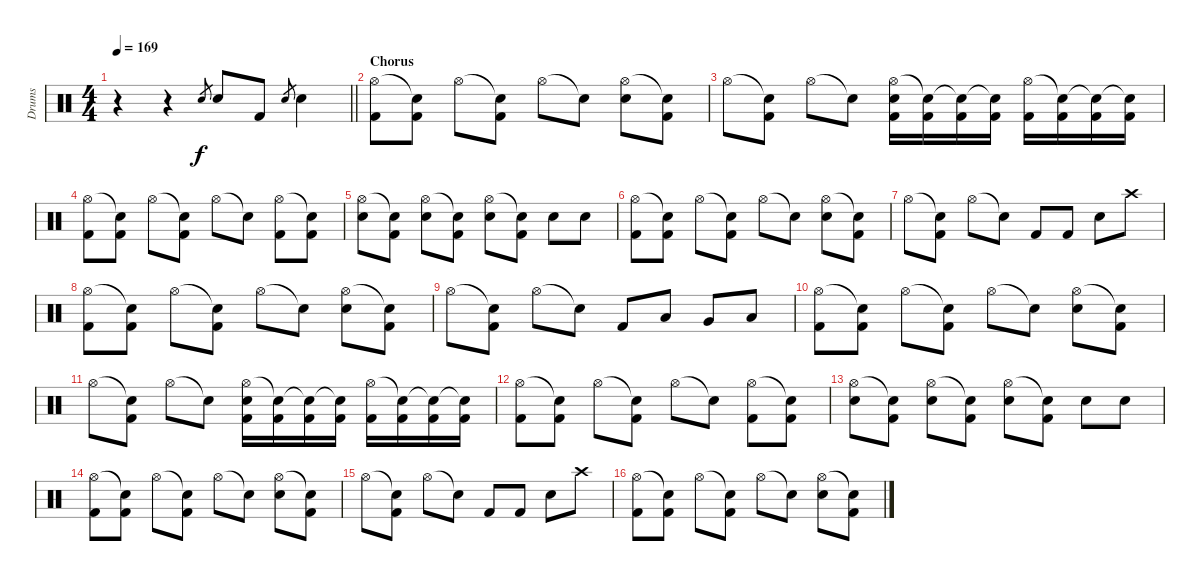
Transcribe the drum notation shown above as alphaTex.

\track ("Drums" "Drums") {instrument percussion}
\staff {score}
\articulation defaults
\ts (4 4)
\tempo 169
\clef neutral
\barLineRight lightlight
\ks c
r.4{dy f} r.4 "Electric Snare (hit)".8{gr} "Electric Snare (hit)".8 "Kick (hit) 2".8 "Electric Snare (hit)".8{gr} "Electric Snare (hit)".4 |
\section ("" "Chorus")
("Hi-Hat (open)" "Kick (hit) 2").8 ("Snare (hit)"{t} "Kick (hit) 2").8 "Hi-Hat (open)".8 ("Snare (hit)"{t} "Kick (hit) 2").8 "Hi-Hat (open)".8 "Snare (hit)"{t}.8 ("Hi-Hat (open)" "Electric Snare (hit)").8 ("Snare (hit)"{t} "Kick (hit) 2").8 |
"Hi-Hat (open)".8 ("Snare (hit)"{t} "Kick (hit) 2").8 "Hi-Hat (open)".8 "Snare (hit)"{t}.8 ("Hi-Hat (open)" "Electric Snare (hit)" "Kick (hit) 2").16 ("Snare (hit)"{t} "Kick (hit) 2").16 ("Snare (hit)"{t} "Kick (hit) 2").16 ("Snare (hit)"{t} "Kick (hit) 2").16 ("Hi-Hat (open)" "Kick (hit) 2").16 ("Snare (hit)"{t} "Kick (hit) 2").16 ("Snare (hit)"{t} "Kick (hit) 2").16 ("Snare (hit)"{t} "Kick (hit) 2").16 |
("Hi-Hat (open)" "Kick (hit) 2").8 ("Snare (hit)"{t} "Kick (hit) 2").8 "Hi-Hat (open)".8 ("Snare (hit)"{t} "Kick (hit) 2").8 "Hi-Hat (open)".8 "Snare (hit)"{t}.8 ("Hi-Hat (open)" "Kick (hit) 2").8 ("Snare (hit)"{t} "Kick (hit) 2").8 |
("Hi-Hat (open)" "Electric Snare (hit)").8 ("Snare (hit)"{t} "Kick (hit) 2").8 ("Hi-Hat (open)" "Electric Snare (hit)").8 ("Snare (hit)"{t} "Kick (hit) 2").8 ("Hi-Hat (open)" "Electric Snare (hit)").8 ("Snare (hit)"{t} "Kick (hit) 2").8 "Electric Snare (hit)".8 "Electric Snare (hit)".8 |
("Hi-Hat (open)" "Kick (hit) 2").8 ("Snare (hit)"{t} "Kick (hit) 2").8 "Hi-Hat (open)".8 ("Snare (hit)"{t} "Kick (hit) 2").8 "Hi-Hat (open)".8 "Snare (hit)"{t}.8 ("Hi-Hat (open)" "Electric Snare (hit)").8 ("Snare (hit)"{t} "Kick (hit) 2").8 |
"Hi-Hat (open)".8 ("Snare (hit)"{t} "Kick (hit) 2").8 "Hi-Hat (open)".8 "Snare (hit)"{t}.8 "Kick (hit) 2".8 "Kick (hit) 2".8 "Electric Snare (hit)".8 "Crash high (hit)".8 |
("Hi-Hat (open)" "Kick (hit) 2").8 ("Snare (hit)"{t} "Kick (hit) 2").8 "Hi-Hat (open)".8 ("Snare (hit)"{t} "Kick (hit) 2").8 "Hi-Hat (open)".8 "Snare (hit)"{t}.8 ("Hi-Hat (open)" "Electric Snare (hit)").8 ("Snare (hit)"{t} "Kick (hit) 2").8 |
"Hi-Hat (open)".8 ("Snare (hit)"{t} "Kick (hit) 2").8 "Hi-Hat (open)".8 "Snare (hit)"{t}.8 "Kick (hit) 2".8 "Low Tom (hit)".8 "Very Low Tom (hit)".8 "Low Floor Tom (hit)".8 |
("Hi-Hat (open)" "Kick (hit) 2").8 ("Snare (hit)"{t} "Kick (hit) 2").8 "Hi-Hat (open)".8 ("Snare (hit)"{t} "Kick (hit) 2").8 "Hi-Hat (open)".8 "Snare (hit)"{t}.8 ("Hi-Hat (open)" "Electric Snare (hit)").8 ("Snare (hit)"{t} "Kick (hit) 2").8 |
"Hi-Hat (open)".8 ("Snare (hit)"{t} "Kick (hit) 2").8 "Hi-Hat (open)".8 "Snare (hit)"{t}.8 ("Hi-Hat (open)" "Electric Snare (hit)" "Kick (hit) 2").16 ("Snare (hit)"{t} "Kick (hit) 2").16 ("Snare (hit)"{t} "Kick (hit) 2").16 ("Snare (hit)"{t} "Kick (hit) 2").16 ("Hi-Hat (open)" "Kick (hit) 2").16 ("Snare (hit)"{t} "Kick (hit) 2").16 ("Snare (hit)"{t} "Kick (hit) 2").16 ("Snare (hit)"{t} "Kick (hit) 2").16 |
("Hi-Hat (open)" "Kick (hit) 2").8 ("Snare (hit)"{t} "Kick (hit) 2").8 "Hi-Hat (open)".8 ("Snare (hit)"{t} "Kick (hit) 2").8 "Hi-Hat (open)".8 "Snare (hit)"{t}.8 ("Hi-Hat (open)" "Kick (hit) 2").8 ("Snare (hit)"{t} "Kick (hit) 2").8 |
("Hi-Hat (open)" "Electric Snare (hit)").8 ("Snare (hit)"{t} "Kick (hit) 2").8 ("Hi-Hat (open)" "Electric Snare (hit)").8 ("Snare (hit)"{t} "Kick (hit) 2").8 ("Hi-Hat (open)" "Electric Snare (hit)").8 ("Snare (hit)"{t} "Kick (hit) 2").8 "Electric Snare (hit)".8 "Electric Snare (hit)".8 |
("Hi-Hat (open)" "Kick (hit) 2").8 ("Snare (hit)"{t} "Kick (hit) 2").8 "Hi-Hat (open)".8 ("Snare (hit)"{t} "Kick (hit) 2").8 "Hi-Hat (open)".8 "Snare (hit)"{t}.8 ("Hi-Hat (open)" "Electric Snare (hit)").8 ("Snare (hit)"{t} "Kick (hit) 2").8 |
"Hi-Hat (open)".8 ("Snare (hit)"{t} "Kick (hit) 2").8 "Hi-Hat (open)".8 "Snare (hit)"{t}.8 "Kick (hit) 2".8 "Kick (hit) 2".8 "Electric Snare (hit)".8 "Crash high (hit)".8 |
("Hi-Hat (open)" "Kick (hit) 2").8 ("Snare (hit)"{t} "Kick (hit) 2").8 "Hi-Hat (open)".8 ("Snare (hit)"{t} "Kick (hit) 2").8 "Hi-Hat (open)".8 "Snare (hit)"{t}.8 ("Hi-Hat (open)" "Electric Snare (hit)").8 ("Snare (hit)"{t} "Kick (hit) 2").8
